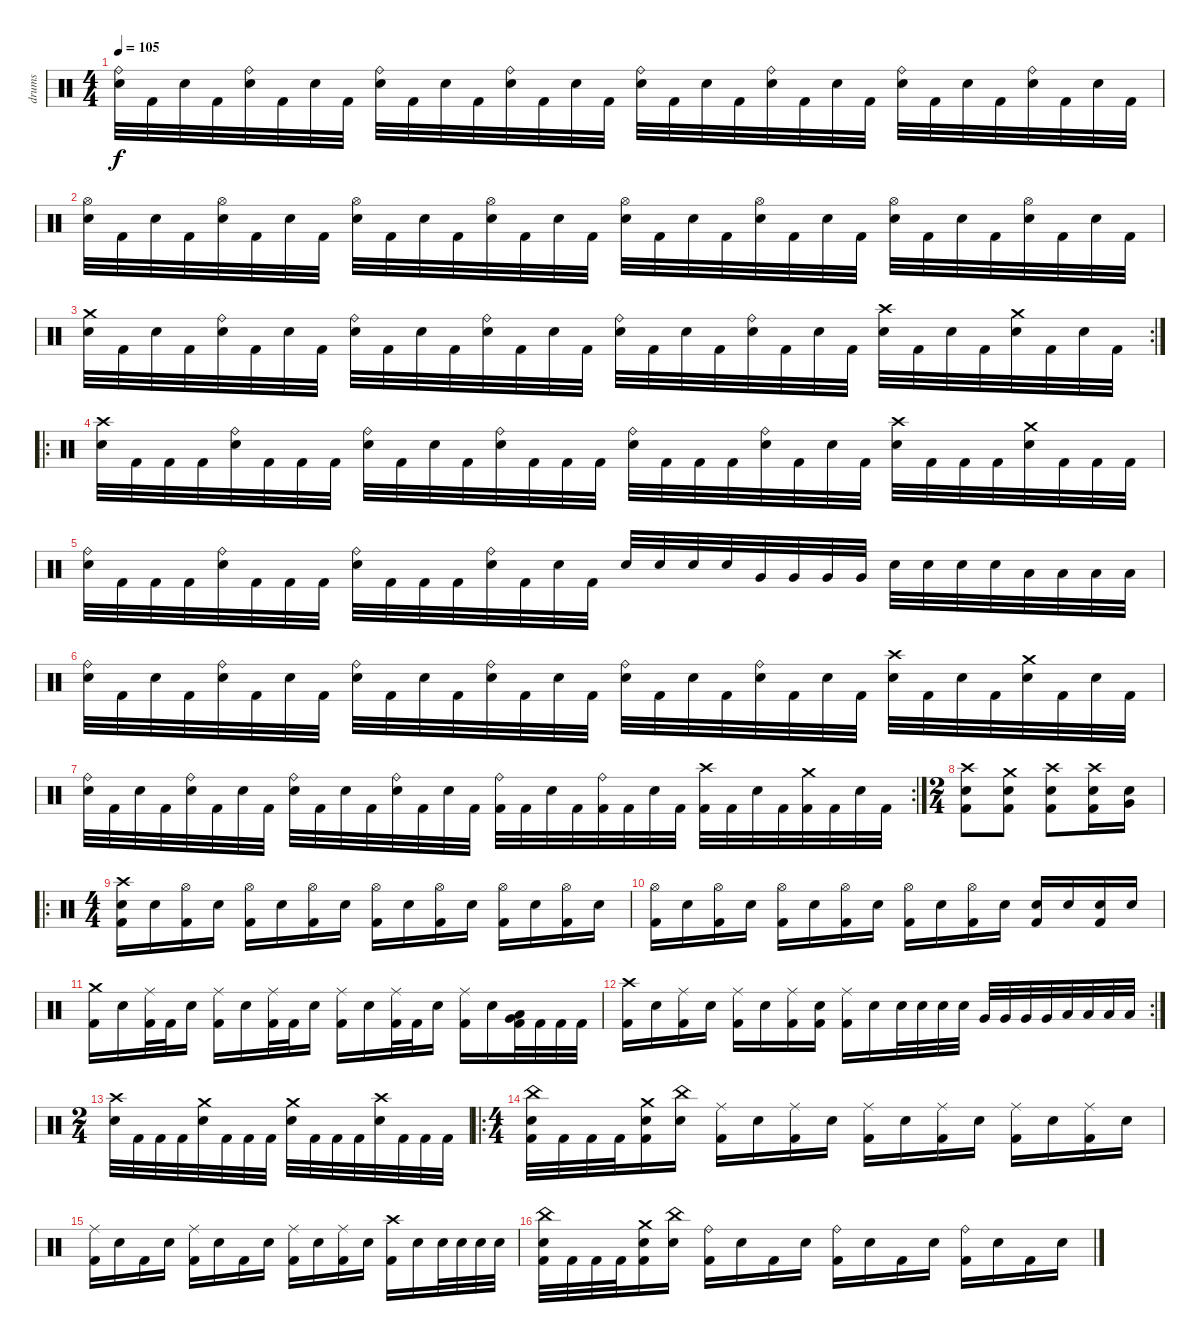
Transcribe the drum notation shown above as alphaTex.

\track ("drums" "drums") {instrument percussion}
\staff {score}
\articulation defaults
\ts (4 4)
\tempo 105
\clef neutral
\ks c
("Ride (bell)" "Snare (hit) 2").32{dy f} "Kick (hit) 2".32 "Snare (hit) 2".32 "Kick (hit) 2".32 ("Ride (bell)" "Snare (hit) 2").32 "Kick (hit) 2".32 "Snare (hit) 2".32 "Kick (hit) 2".32 ("Ride (bell)" "Snare (hit) 2").32 "Kick (hit) 2".32 "Snare (hit) 2".32 "Kick (hit) 2".32 ("Ride (bell)" "Snare (hit) 2").32 "Kick (hit) 2".32 "Snare (hit) 2".32 "Kick (hit) 2".32 ("Ride (bell)" "Snare (hit) 2").32 "Kick (hit) 2".32 "Snare (hit) 2".32 "Kick (hit) 2".32 ("Ride (bell)" "Snare (hit) 2").32 "Kick (hit) 2".32 "Snare (hit) 2".32 "Kick (hit) 2".32 ("Ride (bell)" "Snare (hit) 2").32 "Kick (hit) 2".32 "Snare (hit) 2".32 "Kick (hit) 2".32 ("Ride (bell)" "Snare (hit) 2").32 "Kick (hit) 2".32 "Snare (hit) 2".32 "Kick (hit) 2".32 |
("Hi-Hat (open)" "Snare (hit) 2").32 "Kick (hit) 2".32 "Snare (hit) 2".32 "Kick (hit) 2".32 ("Hi-Hat (open)" "Snare (hit) 2").32 "Kick (hit) 2".32 "Snare (hit) 2".32 "Kick (hit) 2".32 ("Hi-Hat (open)" "Snare (hit) 2").32 "Kick (hit) 2".32 "Snare (hit) 2".32 "Kick (hit) 2".32 ("Hi-Hat (open)" "Snare (hit) 2").32 "Kick (hit) 2".32 "Snare (hit) 2".32 "Kick (hit) 2".32 ("Hi-Hat (open)" "Snare (hit) 2").32 "Kick (hit) 2".32 "Snare (hit) 2".32 "Kick (hit) 2".32 ("Hi-Hat (open)" "Snare (hit) 2").32 "Kick (hit) 2".32 "Snare (hit) 2".32 "Kick (hit) 2".32 ("Hi-Hat (open)" "Snare (hit) 2").32 "Kick (hit) 2".32 "Snare (hit) 2".32 "Kick (hit) 2".32 ("Hi-Hat (open)" "Snare (hit) 2").32 "Kick (hit) 2".32 "Snare (hit) 2".32 "Kick (hit) 2".32 |
\rc 2
("Crash medium (hit)" "Snare (hit) 2").32 "Kick (hit) 2".32 "Snare (hit) 2".32 "Kick (hit) 2".32 ("Ride (bell)" "Snare (hit) 2").32 "Kick (hit) 2".32 "Snare (hit) 2".32 "Kick (hit) 2".32 ("Ride (bell)" "Snare (hit) 2").32 "Kick (hit) 2".32 "Snare (hit) 2".32 "Kick (hit) 2".32 ("Ride (bell)" "Snare (hit) 2").32 "Kick (hit) 2".32 "Snare (hit) 2".32 "Kick (hit) 2".32 ("Ride (bell)" "Snare (hit) 2").32 "Kick (hit) 2".32 "Snare (hit) 2".32 "Kick (hit) 2".32 ("Ride (bell)" "Snare (hit) 2").32 "Kick (hit) 2".32 "Snare (hit) 2".32 "Kick (hit) 2".32 ("Crash high (hit)" "Snare (hit) 2").32 "Kick (hit) 2".32 "Snare (hit) 2".32 "Kick (hit) 2".32 ("Crash medium (hit)" "Snare (hit) 2").32 "Kick (hit) 2".32 "Snare (hit) 2".32 "Kick (hit) 2".32 |
\ro
("Crash high (hit)" "Snare (hit) 2").32 "Kick (hit) 2".32 "Kick (hit) 2".32 "Kick (hit) 2".32 ("Ride (bell)" "Snare (hit) 2").32 "Kick (hit) 2".32 "Kick (hit) 2".32 "Kick (hit) 2".32 ("Ride (bell)" "Snare (hit) 2").32 "Kick (hit) 2".32 "Snare (hit) 2".32 "Kick (hit) 2".32 ("Ride (bell)" "Snare (hit) 2").32 "Kick (hit) 2".32 "Kick (hit) 2".32 "Kick (hit) 2".32 ("Ride (bell)" "Snare (hit) 2").32 "Kick (hit) 2".32 "Kick (hit) 2".32 "Kick (hit) 2".32 ("Ride (bell)" "Snare (hit) 2").32 "Kick (hit) 2".32 "Snare (hit) 2".32 "Kick (hit) 2".32 ("Crash high (hit)" "Snare (hit) 2").32 "Kick (hit) 2".32 "Kick (hit) 2".32 "Kick (hit) 2".32 ("Crash medium (hit)" "Snare (hit) 2").32 "Kick (hit) 2".32 "Kick (hit) 2".32 "Kick (hit) 2".32 |
("Ride (bell)" "Snare (hit) 2").32 "Kick (hit) 2".32 "Kick (hit) 2".32 "Kick (hit) 2".32 ("Ride (bell)" "Snare (hit) 2").32 "Kick (hit) 2".32 "Kick (hit) 2".32 "Kick (hit) 2".32 ("Ride (bell)" "Snare (hit) 2").32 "Kick (hit) 2".32 "Kick (hit) 2".32 "Kick (hit) 2".32 ("Ride (bell)" "Snare (hit) 2").32 "Kick (hit) 2".32 "Snare (hit) 2".32 "Kick (hit) 2".32 "Snare (hit) 2".32 "Snare (hit) 2".32 "Snare (hit) 2".32 "Snare (hit) 2".32 "Very Low Tom (hit)".32 "Very Low Tom (hit)".32 "Very Low Tom (hit)".32 "Very Low Tom (hit)".32 "Snare (hit) 2".32 "Snare (hit) 2".32 "Snare (hit) 2".32 "Snare (hit) 2".32 "Low Floor Tom (hit)".32 "Low Floor Tom (hit)".32 "Low Floor Tom (hit)".32 "Low Floor Tom (hit)".32 |
("Ride (bell)" "Snare (hit) 2").32 "Kick (hit) 2".32 "Snare (hit) 2".32 "Kick (hit) 2".32 ("Ride (bell)" "Snare (hit) 2").32 "Kick (hit) 2".32 "Snare (hit) 2".32 "Kick (hit) 2".32 ("Ride (bell)" "Snare (hit) 2").32 "Kick (hit) 2".32 "Snare (hit) 2".32 "Kick (hit) 2".32 ("Ride (bell)" "Snare (hit) 2").32 "Kick (hit) 2".32 "Snare (hit) 2".32 "Kick (hit) 2".32 ("Ride (bell)" "Snare (hit) 2").32 "Kick (hit) 2".32 "Snare (hit) 2".32 "Kick (hit) 2".32 ("Ride (bell)" "Snare (hit) 2").32 "Kick (hit) 2".32 "Snare (hit) 2".32 "Kick (hit) 2".32 ("Crash high (hit)" "Snare (hit) 2").32 "Kick (hit) 2".32 "Snare (hit) 2".32 "Kick (hit) 2".32 ("Crash medium (hit)" "Snare (hit) 2").32 "Kick (hit) 2".32 "Snare (hit) 2".32 "Kick (hit) 2".32 |
\rc 2
("Ride (bell)" "Snare (hit) 2").32 "Kick (hit) 2".32 "Snare (hit) 2".32 "Kick (hit) 2".32 ("Ride (bell)" "Snare (hit) 2").32 "Kick (hit) 2".32 "Snare (hit) 2".32 "Kick (hit) 2".32 ("Ride (bell)" "Snare (hit) 2").32 "Kick (hit) 2".32 "Snare (hit) 2".32 "Kick (hit) 2".32 ("Ride (bell)" "Snare (hit) 2").32 "Kick (hit) 2".32 "Snare (hit) 2".32 "Kick (hit) 2".32 ("Ride (bell)" "Kick (hit) 2").32 "Kick (hit) 2".32 "Snare (hit) 2".32 "Kick (hit) 2".32 ("Ride (bell)" "Kick (hit) 2").32 "Kick (hit) 2".32 "Snare (hit) 2".32 "Kick (hit) 2".32 ("Crash high (hit)" "Kick (hit) 2").32 "Kick (hit) 2".32 "Snare (hit) 2".32 "Kick (hit) 2".32 ("Crash medium (hit)" "Kick (hit) 2").32 "Kick (hit) 2".32 "Snare (hit) 2".32 "Kick (hit) 2".32 |
\ts (2 4)
("Crash high (hit)" "Snare (hit) 2" "Kick (hit) 2").8 ("Crash medium (hit)" "Snare (hit) 2" "Kick (hit) 2").8 ("Crash high (hit)" "Snare (hit) 2" "Kick (hit) 2").8 ("Crash high (hit)" "Snare (hit) 2" "Kick (hit) 2").16 ("Very Low Tom (hit)" "Snare (hit) 2").16 |
\ro
\ts (4 4)
("Crash high (hit)" "Snare (hit) 2" "Kick (hit) 2").16 "Snare (hit) 2".16 ("Hi-Hat (open)" "Kick (hit) 2").16 "Snare (hit) 2".16 ("Hi-Hat (open)" "Kick (hit) 2").16 "Snare (hit) 2".16 ("Hi-Hat (open)" "Kick (hit) 2").16 "Snare (hit) 2".16 ("Hi-Hat (open)" "Kick (hit) 2").16 "Snare (hit) 2".16 ("Hi-Hat (open)" "Kick (hit) 2").16 "Snare (hit) 2".16 ("Hi-Hat (open)" "Kick (hit) 2").16 "Snare (hit) 2".16 ("Hi-Hat (open)" "Kick (hit) 2").16 "Snare (hit) 2".16 |
("Hi-Hat (open)" "Kick (hit) 2").16 "Snare (hit) 2".16 ("Hi-Hat (open)" "Kick (hit) 2").16 "Snare (hit) 2".16 ("Hi-Hat (open)" "Kick (hit) 2").16 "Snare (hit) 2".16 ("Hi-Hat (open)" "Kick (hit) 2").16 "Snare (hit) 2".16 ("Hi-Hat (open)" "Kick (hit) 2").16 "Snare (hit) 2".16 ("Hi-Hat (open)" "Kick (hit) 2").16 "Snare (hit) 2".16 ("Snare (hit) 2" "Kick (hit) 2").16 "Snare (hit) 2".16 ("Snare (hit) 2" "Kick (hit) 2").16 "Snare (hit) 2".16 |
("Crash medium (hit)" "Kick (hit) 2").16 "Snare (hit) 2".16 ("Ride (middle)" "Kick (hit) 2").32 "Kick (hit) 2".32 "Snare (hit) 2".16 ("Ride (middle)" "Kick (hit) 2").16 "Snare (hit) 2".16 ("Ride (middle)" "Kick (hit) 2").32 "Kick (hit) 2".32 "Snare (hit) 2".16 ("Ride (middle)" "Kick (hit) 2").16 "Snare (hit) 2".16 ("Ride (middle)" "Kick (hit) 2").32 "Kick (hit) 2".32 "Snare (hit) 2".16 ("Ride (middle)" "Kick (hit) 2").16 "Snare (hit) 2".16 ("Low Floor Tom (hit)" "Very Low Tom (hit)" "Kick (hit) 2").32 "Kick (hit) 2".32 "Kick (hit) 2".32 "Kick (hit) 2".32 |
\rc 2
("Crash high (hit)" "Kick (hit) 2").16 "Snare (hit) 2".16 ("Ride (middle)" "Kick (hit) 2").16 "Snare (hit) 2".16 ("Ride (middle)" "Kick (hit) 2").16 "Snare (hit) 2".16 ("Ride (middle)" "Kick (hit) 2").16 ("Snare (hit) 2" "Kick (hit) 2").16 ("Ride (middle)" "Kick (hit) 2").16 "Snare (hit) 2".16 "Snare (hit) 2".32 "Snare (hit) 2".32 "Snare (hit) 2".32 "Snare (hit) 2".32 "Very Low Tom (hit)".32 "Very Low Tom (hit)".32 "Very Low Tom (hit)".32 "Very Low Tom (hit)".32 "Low Floor Tom (hit)".32 "Low Floor Tom (hit)".32 "Low Floor Tom (hit)".32 "Low Floor Tom (hit)".32 |
\ts (2 4)
("Crash high (hit)" "Snare (hit) 2").32 "Kick (hit) 2".32 "Kick (hit) 2".32 "Kick (hit) 2".32 ("Crash medium (hit)" "Snare (hit) 2").32 "Kick (hit) 2".32 "Kick (hit) 2".32 "Kick (hit) 2".32 ("Crash medium (hit)" "Snare (hit) 2").32 "Kick (hit) 2".32 "Kick (hit) 2".32 "Kick (hit) 2".32 ("Crash high (hit)" "Snare (hit) 2").32 "Kick (hit) 2".32 "Kick (hit) 2".32 "Kick (hit) 2".32 |
\ro
\ts (4 4)
("China (hit)" "Snare (hit) 2" "Kick (hit) 2").32 "Kick (hit) 2".32 "Kick (hit) 2".32 "Kick (hit) 2".32 ("Crash medium (hit)" "Snare (hit) 2" "Kick (hit) 2").16 ("China (hit)" "Snare (hit) 2").16 ("Ride (middle)" "Kick (hit) 2").16 "Snare (hit) 2".16 ("Ride (middle)" "Kick (hit) 2").16 "Snare (hit) 2".16 ("Ride (middle)" "Kick (hit) 2").16 "Snare (hit) 2".16 ("Ride (middle)" "Kick (hit) 2").16 "Snare (hit) 2".16 ("Ride (middle)" "Kick (hit) 2").16 "Snare (hit) 2".16 ("Ride (middle)" "Kick (hit) 2").16 "Snare (hit) 2".16 |
("Ride (middle)" "Kick (hit) 2").16 "Snare (hit) 2".16 "Kick (hit) 2".16 "Snare (hit) 2".16 ("Ride (middle)" "Kick (hit) 2").16 "Snare (hit) 2".16 "Kick (hit) 2".16 "Snare (hit) 2".16 ("Ride (middle)" "Kick (hit) 2").16 "Snare (hit) 2".16 ("Ride (middle)" "Kick (hit) 2").16 "Snare (hit) 2".16 ("Crash high (hit)" "Kick (hit) 2").16 "Snare (hit) 2".16 "Snare (hit) 2".32 "Snare (hit) 2".32 "Snare (hit) 2".32 "Snare (hit) 2".32 |
("China (hit)" "Snare (hit) 2" "Kick (hit) 2").32 "Kick (hit) 2".32 "Kick (hit) 2".32 "Kick (hit) 2".32 ("Crash medium (hit)" "Snare (hit) 2" "Kick (hit) 2").16 ("China (hit)" "Snare (hit) 2").16 ("Ride (bell)" "Kick (hit) 2").16 "Snare (hit) 2".16 "Kick (hit) 2".16 "Snare (hit) 2".16 ("Ride (bell)" "Kick (hit) 2").16 "Snare (hit) 2".16 "Kick (hit) 2".16 "Snare (hit) 2".16 ("Ride (bell)" "Kick (hit) 2").16 "Snare (hit) 2".16 "Kick (hit) 2".16 "Snare (hit) 2".16
